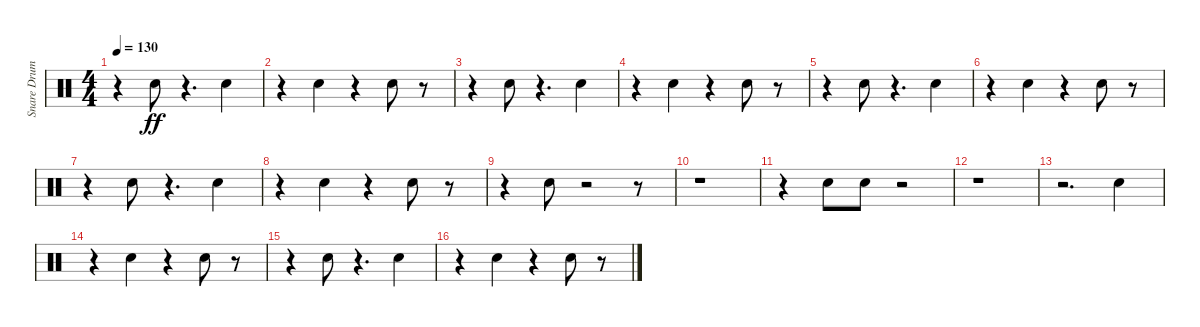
\track ("Snare Drum" "Snare Drum") {instrument percussion}
\staff {score}
\articulation defaults
\ts (4 4)
\tempo 130
\clef neutral
\ks c
r.4{dy ff} "Electric Snare (hit)".8 r.4{d} "Electric Snare (hit)".4 |
r.4 "Electric Snare (hit)".4 r.4 "Electric Snare (hit)".8 r.8 |
r.4 "Electric Snare (hit)".8 r.4{d} "Electric Snare (hit)".4 |
r.4 "Electric Snare (hit)".4 r.4 "Electric Snare (hit)".8 r.8 |
r.4 "Electric Snare (hit)".8 r.4{d} "Electric Snare (hit)".4 |
r.4 "Electric Snare (hit)".4 r.4 "Electric Snare (hit)".8 r.8 |
r.4 "Electric Snare (hit)".8 r.4{d} "Electric Snare (hit)".4 |
r.4 "Electric Snare (hit)".4 r.4 "Electric Snare (hit)".8 r.8 |
r.4 "Electric Snare (hit)".8 r.2 r.8 |
r.1 |
r.4 "Electric Snare (hit)".8 "Electric Snare (hit)".8 r.2 |
r.1 |
r.2{d} "Electric Snare (hit)".4 |
r.4 "Electric Snare (hit)".4 r.4 "Electric Snare (hit)".8 r.8 |
r.4 "Electric Snare (hit)".8 r.4{d} "Electric Snare (hit)".4 |
r.4 "Electric Snare (hit)".4 r.4 "Electric Snare (hit)".8 r.8
